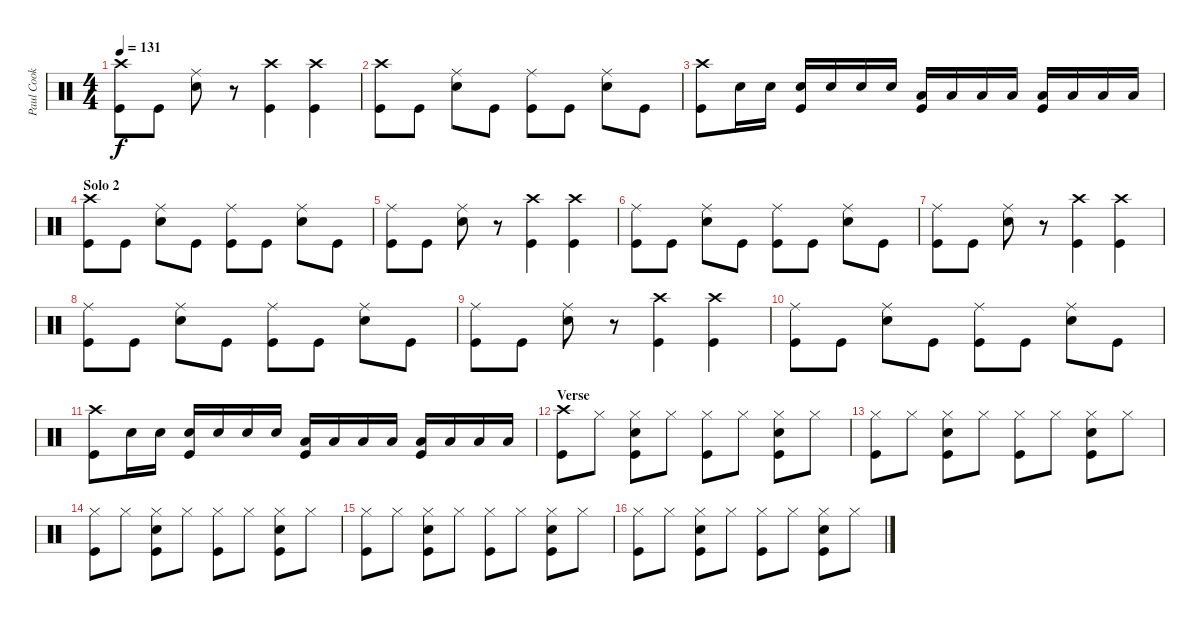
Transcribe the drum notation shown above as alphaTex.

\track ("Paul Cook" "Paul Cook") {instrument percussion}
\staff {score}
\articulation defaults
\ts (4 4)
\tempo 131
\clef neutral
\ks c
("Crash high (hit)" "Kick (hit)").8{dy f} "Kick (hit)".8 ("Ride (middle)" "Snare (hit) 2").8 r.8 ("Crash high (hit)" "Kick (hit)").4 ("Crash high (hit)" "Kick (hit)").4 |
("Crash high (hit)" "Kick (hit)").8 "Kick (hit)".8 ("Ride (middle)" "Snare (hit) 2").8 "Kick (hit)".8 ("Ride (middle)" "Kick (hit)").8 "Kick (hit)".8 ("Ride (middle)" "Snare (hit) 2").8 "Kick (hit)".8 |
("Crash high (hit)" "Kick (hit)").8 "Snare (hit) 2".16 "Snare (hit) 2".16 ("Snare (hit) 2" "Kick (hit)").16 "Snare (hit) 2".16 "Snare (hit) 2".16 "Snare (hit) 2".16 ("Low Tom (hit)" "Kick (hit)").16 "Low Tom (hit)".16 "Low Tom (hit)".16 "Low Tom (hit)".16 ("Low Tom (hit)" "Kick (hit)").16 "Low Tom (hit)".16 "Low Tom (hit)".16 "Low Tom (hit)".16 |
\section ("" "Solo 2")
("Crash high (hit)" "Kick (hit)").8 "Kick (hit)".8 ("Ride (middle)" "Snare (hit) 2").8 "Kick (hit)".8 ("Ride (middle)" "Kick (hit)").8 "Kick (hit)".8 ("Ride (middle)" "Snare (hit) 2").8 "Kick (hit)".8 |
("Ride (middle)" "Kick (hit)").8 "Kick (hit)".8 ("Ride (middle)" "Snare (hit) 2").8 r.8 ("Crash high (hit)" "Kick (hit)").4 ("Crash high (hit)" "Kick (hit)").4 |
("Ride (middle)" "Kick (hit)").8 "Kick (hit)".8 ("Ride (middle)" "Snare (hit) 2").8 "Kick (hit)".8 ("Ride (middle)" "Kick (hit)").8 "Kick (hit)".8 ("Ride (middle)" "Snare (hit) 2").8 "Kick (hit)".8 |
("Ride (middle)" "Kick (hit)").8 "Kick (hit)".8 ("Ride (middle)" "Snare (hit) 2").8 r.8 ("Crash high (hit)" "Kick (hit)").4 ("Crash high (hit)" "Kick (hit)").4 |
("Ride (middle)" "Kick (hit)").8 "Kick (hit)".8 ("Ride (middle)" "Snare (hit) 2").8 "Kick (hit)".8 ("Ride (middle)" "Kick (hit)").8 "Kick (hit)".8 ("Ride (middle)" "Snare (hit) 2").8 "Kick (hit)".8 |
("Ride (middle)" "Kick (hit)").8 "Kick (hit)".8 ("Ride (middle)" "Snare (hit) 2").8 r.8 ("Crash high (hit)" "Kick (hit)").4 ("Crash high (hit)" "Kick (hit)").4 |
("Ride (middle)" "Kick (hit)").8 "Kick (hit)".8 ("Ride (middle)" "Snare (hit) 2").8 "Kick (hit)".8 ("Ride (middle)" "Kick (hit)").8 "Kick (hit)".8 ("Ride (middle)" "Snare (hit) 2").8 "Kick (hit)".8 |
("Crash high (hit)" "Kick (hit)").8 "Snare (hit) 2".16 "Snare (hit) 2".16 ("Snare (hit) 2" "Kick (hit)").16 "Snare (hit) 2".16 "Snare (hit) 2".16 "Snare (hit) 2".16 ("Low Tom (hit)" "Kick (hit)").16 "Low Tom (hit)".16 "Low Tom (hit)".16 "Low Tom (hit)".16 ("Low Tom (hit)" "Kick (hit)").16 "Low Tom (hit)".16 "Low Tom (hit)".16 "Low Tom (hit)".16 |
\section ("" "Verse")
("Crash high (hit)" "Kick (hit)").8 "Hi-Hat (closed)".8 ("Hi-Hat (closed)" "Snare (hit) 2" "Kick (hit)").8 "Hi-Hat (closed)".8 ("Hi-Hat (closed)" "Kick (hit)").8 "Hi-Hat (closed)".8 ("Hi-Hat (closed)" "Snare (hit) 2" "Kick (hit)").8 "Hi-Hat (closed)".8 |
("Hi-Hat (closed)" "Kick (hit)").8 "Hi-Hat (closed)".8 ("Hi-Hat (closed)" "Snare (hit) 2" "Kick (hit)").8 "Hi-Hat (closed)".8 ("Hi-Hat (closed)" "Kick (hit)").8 "Hi-Hat (closed)".8 ("Hi-Hat (closed)" "Snare (hit) 2" "Kick (hit)").8 "Hi-Hat (closed)".8 |
("Hi-Hat (closed)" "Kick (hit)").8 "Hi-Hat (closed)".8 ("Hi-Hat (closed)" "Snare (hit) 2" "Kick (hit)").8 "Hi-Hat (closed)".8 ("Hi-Hat (closed)" "Kick (hit)").8 "Hi-Hat (closed)".8 ("Hi-Hat (closed)" "Snare (hit) 2" "Kick (hit)").8 "Hi-Hat (closed)".8 |
("Hi-Hat (closed)" "Kick (hit)").8 "Hi-Hat (closed)".8 ("Hi-Hat (closed)" "Snare (hit) 2" "Kick (hit)").8 "Hi-Hat (closed)".8 ("Hi-Hat (closed)" "Kick (hit)").8 "Hi-Hat (closed)".8 ("Hi-Hat (closed)" "Snare (hit) 2" "Kick (hit)").8 "Hi-Hat (closed)".8 |
("Hi-Hat (closed)" "Kick (hit)").8 "Hi-Hat (closed)".8 ("Hi-Hat (closed)" "Snare (hit) 2" "Kick (hit)").8 "Hi-Hat (closed)".8 ("Hi-Hat (closed)" "Kick (hit)").8 "Hi-Hat (closed)".8 ("Hi-Hat (closed)" "Snare (hit) 2" "Kick (hit)").8 "Hi-Hat (closed)".8
